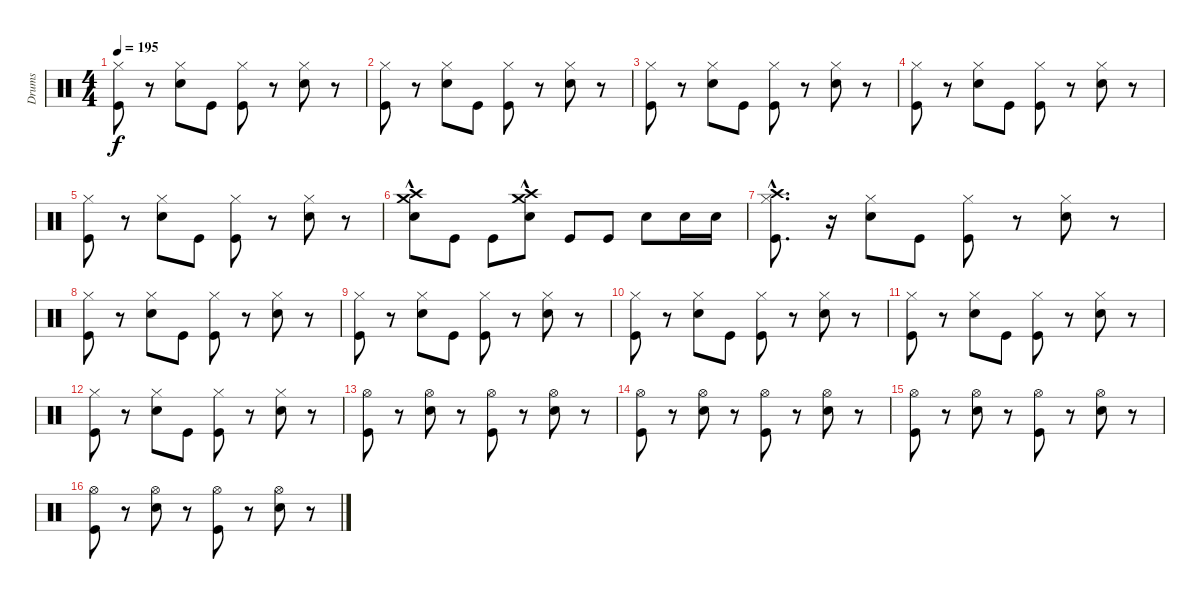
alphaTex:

\track ("Drums" "Drums") {instrument percussion}
\staff {score}
\articulation defaults
\ts (4 4)
\tempo 195
\clef neutral
\ks c
("Kick (hit)" "Hi-Hat (closed)").8{dy f} r.8 ("Hi-Hat (closed)" "Electric Snare (hit)").8 "Kick (hit)".8 ("Kick (hit)" "Hi-Hat (closed)").8 r.8 ("Hi-Hat (closed)" "Electric Snare (hit)").8 r.8 |
("Kick (hit)" "Hi-Hat (closed)").8 r.8 ("Electric Snare (hit)" "Hi-Hat (closed)").8 "Kick (hit)".8 ("Kick (hit)" "Hi-Hat (closed)").8 r.8 ("Hi-Hat (closed)" "Electric Snare (hit)").8 r.8 |
("Kick (hit)" "Hi-Hat (closed)").8 r.8 ("Electric Snare (hit)" "Hi-Hat (closed)").8 "Kick (hit)".8 ("Hi-Hat (closed)" "Kick (hit)").8 r.8 ("Hi-Hat (closed)" "Electric Snare (hit)").8 r.8 |
("Kick (hit)" "Hi-Hat (closed)").8 r.8 ("Hi-Hat (closed)" "Electric Snare (hit)").8 "Kick (hit)".8 ("Hi-Hat (closed)" "Kick (hit)").8 r.8 ("Hi-Hat (closed)" "Electric Snare (hit)").8 r.8 |
("Hi-Hat (closed)" "Kick (hit)").8 r.8 ("Hi-Hat (closed)" "Electric Snare (hit)").8 "Kick (hit)".8 ("Hi-Hat (closed)" "Kick (hit)").8 r.8 ("Hi-Hat (closed)" "Electric Snare (hit)").8 r.8 |
("Crash medium (hit)"{hac} "Crash high (hit)"{hac} "Electric Snare (hit)").8 "Kick (hit)".8 "Kick (hit)".8 ("Crash high (hit)"{hac} "Electric Snare (hit)" "Crash medium (hit)"{hac}).8 "Kick (hit)".8 "Kick (hit)".8 "Electric Snare (hit)".8 "Electric Snare (hit)".16 "Electric Snare (hit)".16 |
("Crash high (hit)"{hac} "Kick (hit)" "Hi-Hat (closed)").8{d} r.16 ("Hi-Hat (closed)" "Electric Snare (hit)").8 "Kick (hit)".8 ("Kick (hit)" "Hi-Hat (closed)").8 r.8 ("Hi-Hat (closed)" "Electric Snare (hit)").8 r.8 |
("Kick (hit)" "Hi-Hat (closed)").8 r.8 ("Hi-Hat (closed)" "Electric Snare (hit)").8 "Kick (hit)".8 ("Hi-Hat (closed)" "Kick (hit)").8 r.8 ("Hi-Hat (closed)" "Electric Snare (hit)").8 r.8 |
("Kick (hit)" "Hi-Hat (closed)").8 r.8 ("Hi-Hat (closed)" "Electric Snare (hit)").8 "Kick (hit)".8 ("Hi-Hat (closed)" "Kick (hit)").8 r.8 ("Hi-Hat (closed)" "Electric Snare (hit)").8 r.8 |
("Hi-Hat (closed)" "Kick (hit)").8 r.8 ("Hi-Hat (closed)" "Electric Snare (hit)").8 "Kick (hit)".8 ("Hi-Hat (closed)" "Kick (hit)").8 r.8 ("Hi-Hat (closed)" "Electric Snare (hit)").8 r.8 |
("Hi-Hat (closed)" "Kick (hit)").8 r.8 ("Hi-Hat (closed)" "Electric Snare (hit)").8 "Kick (hit)".8 ("Kick (hit)" "Hi-Hat (closed)").8 r.8 ("Hi-Hat (closed)" "Electric Snare (hit)").8 r.8 |
("Hi-Hat (closed)" "Kick (hit)").8 r.8 ("Hi-Hat (closed)" "Electric Snare (hit)").8 "Kick (hit)".8 ("Kick (hit)" "Hi-Hat (closed)").8 r.8 ("Hi-Hat (closed)" "Electric Snare (hit)").8 r.8 |
("Kick (hit)" "Hi-Hat (open)").8 r.8 ("Hi-Hat (open)" "Electric Snare (hit)").8 r.8 ("Kick (hit)" "Hi-Hat (open)").8 r.8 ("Hi-Hat (open)" "Electric Snare (hit)").8 r.8 |
("Hi-Hat (open)" "Kick (hit)").8 r.8 ("Hi-Hat (open)" "Electric Snare (hit)").8 r.8 ("Kick (hit)" "Hi-Hat (open)").8 r.8 ("Electric Snare (hit)" "Hi-Hat (open)").8 r.8 |
("Hi-Hat (open)" "Kick (hit)").8 r.8 ("Electric Snare (hit)" "Hi-Hat (open)").8 r.8 ("Hi-Hat (open)" "Kick (hit)").8 r.8 ("Hi-Hat (open)" "Electric Snare (hit)").8 r.8 |
("Hi-Hat (open)" "Kick (hit)").8 r.8 ("Electric Snare (hit)" "Hi-Hat (open)").8 r.8 ("Kick (hit)" "Hi-Hat (open)").8 r.8 ("Hi-Hat (open)" "Electric Snare (hit)").8 r.8
